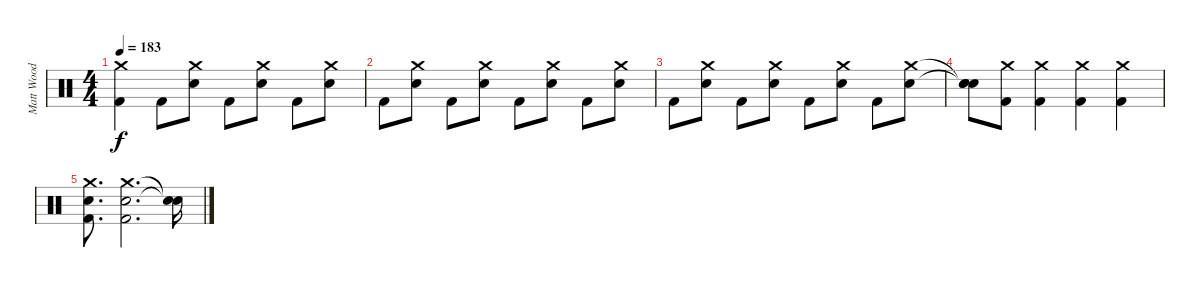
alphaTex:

\track ("Matt Wood" "Matt Wood") {instrument percussion}
\staff {score}
\articulation defaults
\ts (4 4)
\tempo 183
\clef neutral
\ks c
("Crash medium (hit)" "Kick (hit) 2").4{dy f} "Kick (hit) 2".8 ("Crash medium (hit)" "Snare (hit) 2").8 "Kick (hit) 2".8 ("Crash medium (hit)" "Snare (hit) 2").8 "Kick (hit) 2".8 ("Crash medium (hit)" "Snare (hit) 2").8 |
"Kick (hit) 2".8 ("Crash medium (hit)" "Snare (hit) 2").8 "Kick (hit) 2".8 ("Crash medium (hit)" "Snare (hit) 2").8 "Kick (hit) 2".8 ("Crash medium (hit)" "Snare (hit) 2").8 "Kick (hit) 2".8 ("Crash medium (hit)" "Snare (hit) 2").8 |
"Kick (hit) 2".8 ("Crash medium (hit)" "Snare (hit) 2").8 "Kick (hit) 2".8 ("Crash medium (hit)" "Snare (hit) 2").8 "Kick (hit) 2".8 ("Crash medium (hit)" "Snare (hit) 2").8 "Kick (hit) 2".8 ("Crash medium (hit)" "Snare (hit) 2").8 |
("Snare (hit)"{t} "Snare (hit)"{t} "Snare (hit)").8 ("Crash medium (hit)" "Kick (hit) 2").8 ("Crash medium (hit)" "Kick (hit) 2").4 ("Crash medium (hit)" "Kick (hit) 2").4 ("Crash medium (hit)" "Kick (hit) 2").4 |
("Crash medium (hit)" "Snare (hit) 2" "Kick (hit) 2").8{d} ("Crash medium (hit)" "Snare (hit) 2" "Kick (hit) 2").2{d} ("Snare (hit)"{t} "Snare (hit)"{t}).16
